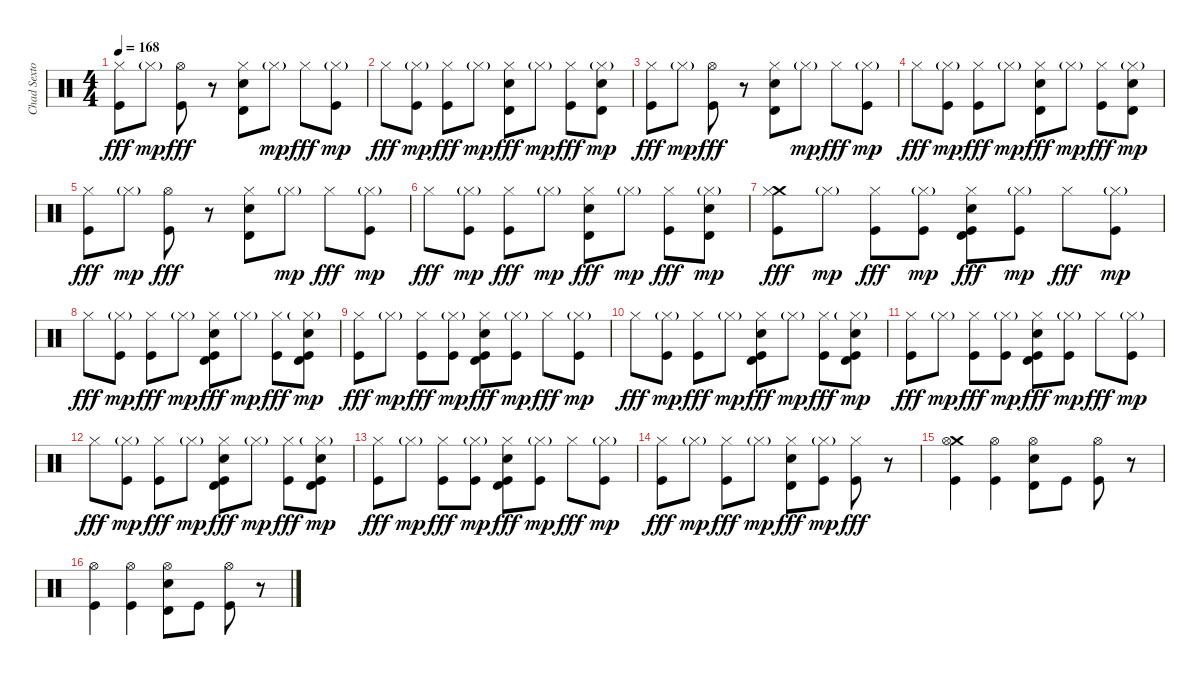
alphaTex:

\track ("Chad Sexton" "Chad Sexto") {instrument percussion}
\staff {score}
\articulation defaults
\ts (4 4)
\tempo 168
\clef neutral
\ks c
("Kick (hit)" "Hi-Hat (closed)").8{dy fff} "Hi-Hat (closed)"{g}.8{dy mp} ("Kick (hit)" "Hi-Hat (open)").8{dy fff} r.8 ("Electric Snare (hit)" "Timbale high (hit)" "Hi-Hat (closed)").8 "Hi-Hat (closed)"{g}.8{dy mp} "Hi-Hat (closed)".8{dy fff} ("Kick (hit)" "Hi-Hat (closed)"{g}).8{dy mp} |
"Hi-Hat (closed)".8{dy fff} ("Kick (hit)" "Hi-Hat (closed)"{g}).8{dy mp} ("Kick (hit)" "Hi-Hat (closed)").8{dy fff} "Hi-Hat (closed)"{g}.8{dy mp} ("Electric Snare (hit)" "Timbale high (hit)" "Hi-Hat (closed)").8{dy fff} "Hi-Hat (closed)"{g}.8{dy mp} ("Kick (hit)" "Hi-Hat (closed)").8{dy fff} ("Electric Snare (hit)" "Timbale high (hit)" "Hi-Hat (closed)"{g}).8{dy mp} |
("Kick (hit)" "Hi-Hat (closed)").8{dy fff} "Hi-Hat (closed)"{g}.8{dy mp} ("Kick (hit)" "Hi-Hat (open)").8{dy fff} r.8 ("Electric Snare (hit)" "Timbale high (hit)" "Hi-Hat (closed)").8 "Hi-Hat (closed)"{g}.8{dy mp} "Hi-Hat (closed)".8{dy fff} ("Kick (hit)" "Hi-Hat (closed)"{g}).8{dy mp} |
"Hi-Hat (closed)".8{dy fff} ("Kick (hit)" "Hi-Hat (closed)"{g}).8{dy mp} ("Kick (hit)" "Hi-Hat (closed)").8{dy fff} "Hi-Hat (closed)"{g}.8{dy mp} ("Electric Snare (hit)" "Timbale high (hit)" "Hi-Hat (closed)").8{dy fff} "Hi-Hat (closed)"{g}.8{dy mp} ("Kick (hit)" "Hi-Hat (closed)").8{dy fff} ("Electric Snare (hit)" "Timbale high (hit)" "Hi-Hat (closed)"{g}).8{dy mp} |
("Kick (hit)" "Hi-Hat (closed)").8{dy fff} "Hi-Hat (closed)"{g}.8{dy mp} ("Kick (hit)" "Hi-Hat (open)").8{dy fff} r.8 ("Electric Snare (hit)" "Timbale high (hit)" "Hi-Hat (closed)").8 "Hi-Hat (closed)"{g}.8{dy mp} "Hi-Hat (closed)".8{dy fff} ("Kick (hit)" "Hi-Hat (closed)"{g}).8{dy mp} |
"Hi-Hat (closed)".8{dy fff} ("Kick (hit)" "Hi-Hat (closed)"{g}).8{dy mp} ("Kick (hit)" "Hi-Hat (closed)").8{dy fff} "Hi-Hat (closed)"{g}.8{dy mp} ("Electric Snare (hit)" "Timbale high (hit)" "Hi-Hat (closed)").8{dy fff} "Hi-Hat (closed)"{g}.8{dy mp} ("Kick (hit)" "Hi-Hat (closed)").8{dy fff} ("Electric Snare (hit)" "Timbale high (hit)" "Hi-Hat (closed)"{g}).8{dy mp} |
("Crash medium (hit)" "Kick (hit)" "Hi-Hat (closed)").8{dy fff} "Hi-Hat (closed)"{g}.8{dy mp} ("Kick (hit)" "Hi-Hat (closed)").8{dy fff} ("Kick (hit)" "Hi-Hat (closed)"{g}).8{dy mp} ("Timbale high (hit)" "Electric Snare (hit)" "Kick (hit)" "Hi-Hat (closed)").8{dy fff} ("Kick (hit)" "Hi-Hat (closed)"{g}).8{dy mp} "Hi-Hat (closed)".8{dy fff} ("Kick (hit)" "Hi-Hat (closed)"{g}).8{dy mp} |
"Hi-Hat (closed)".8{dy fff} ("Kick (hit)" "Hi-Hat (closed)"{g}).8{dy mp} ("Kick (hit)" "Hi-Hat (closed)").8{dy fff} "Hi-Hat (closed)"{g}.8{dy mp} ("Timbale high (hit)" "Electric Snare (hit)" "Kick (hit)" "Hi-Hat (closed)").8{dy fff} "Hi-Hat (closed)"{g}.8{dy mp} ("Kick (hit)" "Hi-Hat (closed)").8{dy fff} ("Timbale high (hit)" "Electric Snare (hit)" "Kick (hit)" "Hi-Hat (closed)"{g}).8{dy mp} |
("Kick (hit)" "Hi-Hat (closed)").8{dy fff} "Hi-Hat (closed)"{g}.8{dy mp} ("Kick (hit)" "Hi-Hat (closed)").8{dy fff} ("Kick (hit)" "Hi-Hat (closed)"{g}).8{dy mp} ("Timbale high (hit)" "Electric Snare (hit)" "Kick (hit)" "Hi-Hat (closed)").8{dy fff} ("Kick (hit)" "Hi-Hat (closed)"{g}).8{dy mp} "Hi-Hat (closed)".8{dy fff} ("Kick (hit)" "Hi-Hat (closed)"{g}).8{dy mp} |
"Hi-Hat (closed)".8{dy fff} ("Kick (hit)" "Hi-Hat (closed)"{g}).8{dy mp} ("Kick (hit)" "Hi-Hat (closed)").8{dy fff} "Hi-Hat (closed)"{g}.8{dy mp} ("Timbale high (hit)" "Electric Snare (hit)" "Kick (hit)" "Hi-Hat (closed)").8{dy fff} "Hi-Hat (closed)"{g}.8{dy mp} ("Kick (hit)" "Hi-Hat (closed)").8{dy fff} ("Timbale high (hit)" "Electric Snare (hit)" "Kick (hit)" "Hi-Hat (closed)"{g}).8{dy mp} |
("Kick (hit)" "Hi-Hat (closed)").8{dy fff} "Hi-Hat (closed)"{g}.8{dy mp} ("Kick (hit)" "Hi-Hat (closed)").8{dy fff} ("Kick (hit)" "Hi-Hat (closed)"{g}).8{dy mp} ("Timbale high (hit)" "Electric Snare (hit)" "Kick (hit)" "Hi-Hat (closed)").8{dy fff} ("Kick (hit)" "Hi-Hat (closed)"{g}).8{dy mp} "Hi-Hat (closed)".8{dy fff} ("Kick (hit)" "Hi-Hat (closed)"{g}).8{dy mp} |
"Hi-Hat (closed)".8{dy fff} ("Kick (hit)" "Hi-Hat (closed)"{g}).8{dy mp} ("Kick (hit)" "Hi-Hat (closed)").8{dy fff} "Hi-Hat (closed)"{g}.8{dy mp} ("Timbale high (hit)" "Electric Snare (hit)" "Kick (hit)" "Hi-Hat (closed)").8{dy fff} "Hi-Hat (closed)"{g}.8{dy mp} ("Kick (hit)" "Hi-Hat (closed)").8{dy fff} ("Timbale high (hit)" "Electric Snare (hit)" "Kick (hit)" "Hi-Hat (closed)"{g}).8{dy mp} |
("Kick (hit)" "Hi-Hat (closed)").8{dy fff} "Hi-Hat (closed)"{g}.8{dy mp} ("Kick (hit)" "Hi-Hat (closed)").8{dy fff} ("Kick (hit)" "Hi-Hat (closed)"{g}).8{dy mp} ("Timbale high (hit)" "Electric Snare (hit)" "Kick (hit)" "Hi-Hat (closed)").8{dy fff} ("Kick (hit)" "Hi-Hat (closed)"{g}).8{dy mp} "Hi-Hat (closed)".8{dy fff} ("Kick (hit)" "Hi-Hat (closed)"{g}).8{dy mp} |
("Kick (hit)" "Hi-Hat (closed)").8{dy fff} "Hi-Hat (closed)"{g}.8{dy mp} ("Kick (hit)" "Hi-Hat (closed)").8{dy fff} "Hi-Hat (closed)"{g}.8{dy mp} ("Timbale high (hit)" "Electric Snare (hit)" "Hi-Hat (closed)").8{dy fff} ("Kick (hit)" "Hi-Hat (closed)"{g}).8{dy mp} ("Kick (hit)" "Hi-Hat (closed)").8{dy fff} r.8 |
("Crash medium (hit)" "Hi-Hat (open)" "Kick (hit)").4 ("Hi-Hat (open)" "Kick (hit)").4 ("Hi-Hat (open)" "Electric Snare (hit)" "Timbale high (hit)").8 "Kick (hit)".8 ("Hi-Hat (open)" "Kick (hit)").8 r.8 |
("Hi-Hat (open)" "Kick (hit)").4 ("Hi-Hat (open)" "Kick (hit)").4 ("Hi-Hat (open)" "Electric Snare (hit)" "Timbale high (hit)").8 "Kick (hit)".8 ("Hi-Hat (open)" "Kick (hit)").8 r.8
